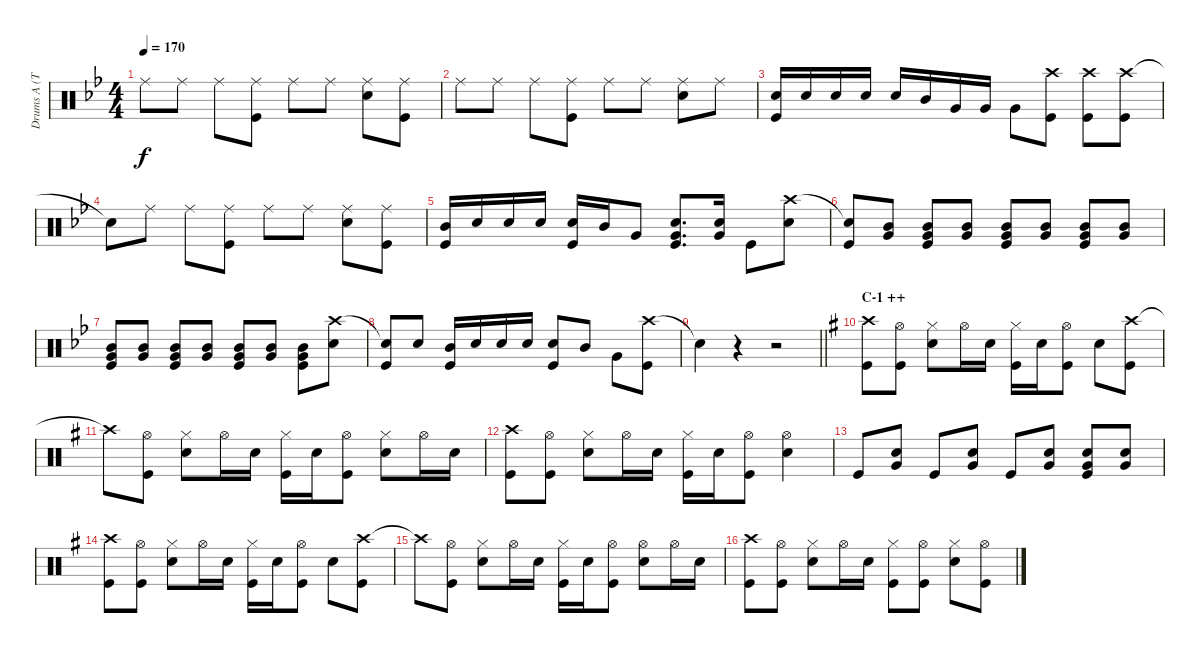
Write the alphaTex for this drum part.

\track ("Drums A (Tainaka Ritsu)" "Drums A (T") {instrument percussion}
\staff {score}
\articulation defaults
\ts (4 4)
\tempo 170
\clef neutral
\ks bb "Ride (middle)".8{dy f} "Ride (middle)".8 "Ride (middle)".8
("Ride (middle)" "Kick (hit)").8 "Ride (middle)".8 "Ride (middle)".8 ("Ride (middle)" "Snare (hit) 2").8 ("Ride (middle)" "Kick (hit)").8 |
"Ride (middle)".8 "Ride (middle)".8 "Ride (middle)".8 ("Ride (middle)" "Kick (hit)").8 "Ride (middle)".8 "Ride (middle)".8 ("Ride (middle)" "Snare (hit) 2").8 "Ride (middle)".8 |
("Snare (hit) 2" "Kick (hit)").16 "Snare (hit) 2".16 "Snare (hit) 2".16 "Snare (hit) 2".16 "Snare (hit) 2".16 "Mid Tom (hit)".16 "Very Low Tom (hit)".16 "Very Low Tom (hit)".16 "Very Low Tom (hit)".8 ("Crash high (hit)" "Kick (hit)").8 ("Crash high (hit)" "Kick (hit)").8 ("Crash high (hit)" "Kick (hit)").8 |
"Snare (hit)"{t}.8 "Ride (middle)".8 "Ride (middle)".8 ("Ride (middle)" "Kick (hit)").8 "Ride (middle)".8 "Ride (middle)".8 ("Ride (middle)" "Snare (hit) 2").8 ("Ride (middle)" "Kick (hit)").8 |
("Mid Tom (hit)" "Kick (hit)").16 "Snare (hit) 2".16 "Snare (hit) 2".16 "Snare (hit) 2".16 ("Snare (hit) 2" "Kick (hit)").16 "Mid Tom (hit)".16 "Very Low Tom (hit)".8 ("Snare (hit) 2" "Very Low Tom (hit)" "Kick (hit)").8{d} ("Snare (hit) 2" "Very Low Tom (hit)").16 "Kick (hit)".8 ("Crash high (hit)" "Snare (hit) 2").8 |
("Snare (hit)"{t} "Kick (hit)").8 ("Mid Tom (hit)" "Very Low Tom (hit)").8 ("Mid Tom (hit)" "Very Low Tom (hit)" "Kick (hit)").8 ("Mid Tom (hit)" "Very Low Tom (hit)").8 ("Mid Tom (hit)" "Very Low Tom (hit)" "Kick (hit)").8 ("Mid Tom (hit)" "Very Low Tom (hit)").8 ("Mid Tom (hit)" "Very Low Tom (hit)" "Kick (hit)").8 ("Mid Tom (hit)" "Very Low Tom (hit)").8 |
("Mid Tom (hit)" "Very Low Tom (hit)" "Kick (hit)").8 ("Mid Tom (hit)" "Very Low Tom (hit)").8 ("Mid Tom (hit)" "Very Low Tom (hit)" "Kick (hit)").8 ("Mid Tom (hit)" "Very Low Tom (hit)").8 ("Mid Tom (hit)" "Very Low Tom (hit)" "Kick (hit)").8 ("Mid Tom (hit)" "Very Low Tom (hit)").8 ("Mid Tom (hit)" "Very Low Tom (hit)" "Kick (hit)").8 ("Crash high (hit)" "Snare (hit) 2").8 |
("Snare (hit)"{t} "Kick (hit)").8 "Snare (hit) 2".8 ("Mid Tom (hit)" "Kick (hit)").16 "Snare (hit) 2".16 "Snare (hit) 2".16 "Snare (hit) 2".16 ("Snare (hit) 2" "Kick (hit)").8 "Mid Tom (hit)".8 "Very Low Tom (hit)".8 ("Crash high (hit)" "Kick (hit)").8 |
\barLineRight lightlight "Snare (hit)"{t}.4
r.4 r.2 |
\section ("" "C-1 ++")
\ks g
("Crash high (hit)" "Kick (hit)").8 ("Hi-Hat (open)" "Kick (hit)").8 ("Hi-Hat (closed)" "Snare (hit) 2").8 "Hi-Hat (open)".16 "Snare (hit) 2".16 ("Hi-Hat (closed)" "Kick (hit)").16 "Snare (hit) 2".16 ("Hi-Hat (open)" "Kick (hit)").8 "Snare (hit) 2".8 ("Crash high (hit)" "Kick (hit)").8 |
"Crash high (hit)"{t}.8 ("Hi-Hat (open)" "Kick (hit)").8 ("Hi-Hat (closed)" "Snare (hit) 2").8 "Hi-Hat (open)".16 "Snare (hit) 2".16 ("Hi-Hat (closed)" "Kick (hit)").16 "Snare (hit) 2".16 ("Hi-Hat (open)" "Kick (hit)").8 ("Hi-Hat (closed)" "Snare (hit) 2").8 "Hi-Hat (open)".16 "Snare (hit) 2".16 |
("Crash high (hit)" "Kick (hit)").8 ("Hi-Hat (open)" "Kick (hit)").8 ("Hi-Hat (closed)" "Snare (hit) 2").8 "Hi-Hat (open)".16 "Snare (hit) 2".16 ("Hi-Hat (closed)" "Kick (hit)").16 "Snare (hit) 2".16 ("Hi-Hat (open)" "Kick (hit)").8 ("Hi-Hat (open)" "Snare (hit) 2").4 |
"Kick (hit)".8 ("Snare (hit) 2" "Very Low Tom (hit)").8 "Kick (hit)".8 ("Snare (hit) 2" "Very Low Tom (hit)").8 "Kick (hit)".8 ("Snare (hit) 2" "Very Low Tom (hit)").8 ("Snare (hit) 2" "Very Low Tom (hit)" "Kick (hit)").8 ("Snare (hit) 2" "Very Low Tom (hit)").8 |
("Crash high (hit)" "Kick (hit)").8 ("Hi-Hat (open)" "Kick (hit)").8 ("Hi-Hat (closed)" "Snare (hit) 2").8 "Hi-Hat (open)".16 "Snare (hit) 2".16 ("Hi-Hat (closed)" "Kick (hit)").16 "Snare (hit) 2".16 ("Hi-Hat (open)" "Kick (hit)").8 "Snare (hit) 2".8 ("Crash high (hit)" "Kick (hit)").8 |
"Crash high (hit)"{t}.8 ("Hi-Hat (open)" "Kick (hit)").8 ("Hi-Hat (closed)" "Snare (hit) 2").8 "Hi-Hat (open)".16 "Snare (hit) 2".16 ("Hi-Hat (closed)" "Kick (hit)").16 "Snare (hit) 2".16 ("Hi-Hat (open)" "Kick (hit)").8 ("Hi-Hat (open)" "Snare (hit) 2").8 "Hi-Hat (open)".16 "Snare (hit) 2".16 |
("Crash high (hit)" "Kick (hit)").8 ("Hi-Hat (open)" "Kick (hit)").8 ("Hi-Hat (closed)" "Snare (hit) 2").8 "Hi-Hat (open)".16 "Snare (hit) 2".16 ("Hi-Hat (closed)" "Kick (hit)").8 ("Hi-Hat (open)" "Kick (hit)").8 ("Hi-Hat (closed)" "Snare (hit) 2").8 ("Hi-Hat (open)" "Kick (hit)").8
